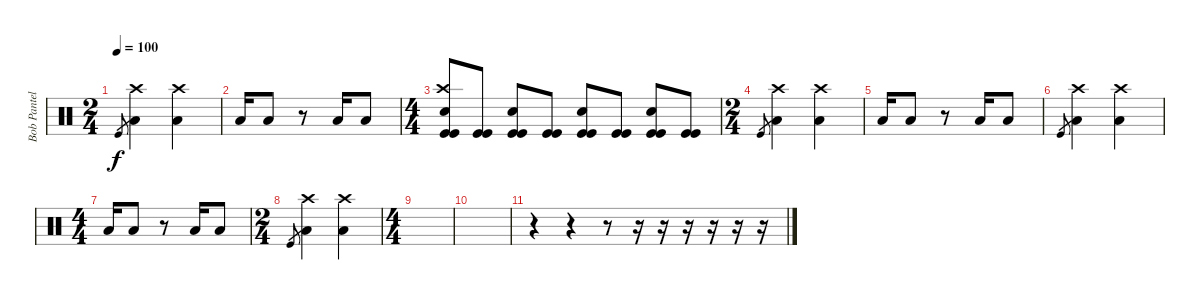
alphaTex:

\track ("Bob Pantella" "Bob Pantel") {instrument percussion}
\staff {score}
\articulation defaults
\ts (2 4)
\tempo 100
\clef neutral
\ks c "Kick (hit)".8{gr dy f}
("Crash high (hit)" "Low Floor Tom (hit)").4 ("Crash high (hit)" "Low Floor Tom (hit)").4 |
"Low Floor Tom (hit)".16 "Low Floor Tom (hit)".8 r.8 "Low Floor Tom (hit)".16 "Low Floor Tom (hit)".8 |
\ts (4 4)
("Crash high (hit)" "Electric Snare (hit)" "Kick (hit)" "Kick (hit)").8 ("Kick (hit)" "Kick (hit)").8 ("Electric Snare (hit)" "Kick (hit)" "Kick (hit)").8 ("Kick (hit)" "Kick (hit)").8 ("Electric Snare (hit)" "Kick (hit)" "Kick (hit)").8 ("Kick (hit)" "Kick (hit)").8 ("Electric Snare (hit)" "Kick (hit)" "Kick (hit)").8 ("Kick (hit)" "Kick (hit)").8 |
\ts (2 4)
"Kick (hit)".8{gr} ("Crash high (hit)" "Low Floor Tom (hit)").4 ("Crash high (hit)" "Low Floor Tom (hit)").4 |
"Low Floor Tom (hit)".16 "Low Floor Tom (hit)".8 r.8 "Low Floor Tom (hit)".16 "Low Floor Tom (hit)".8 |
"Kick (hit)".8{gr} ("Crash high (hit)" "Low Floor Tom (hit)").4 ("Crash high (hit)" "Low Floor Tom (hit)").4 |
\ts (4 4)
"Low Floor Tom (hit)".16 "Low Floor Tom (hit)".8 r.8 "Low Floor Tom (hit)".16 "Low Floor Tom (hit)".8 |
\ts (2 4)
"Kick (hit)".8{gr} ("Crash high (hit)" "Low Floor Tom (hit)").4 ("Crash high (hit)" "Low Floor Tom (hit)").4 |
\ts (4 4)
|
|
r.4 r.4 r.8 r.16 r.16 r.16 r.16 r.16 r.16
